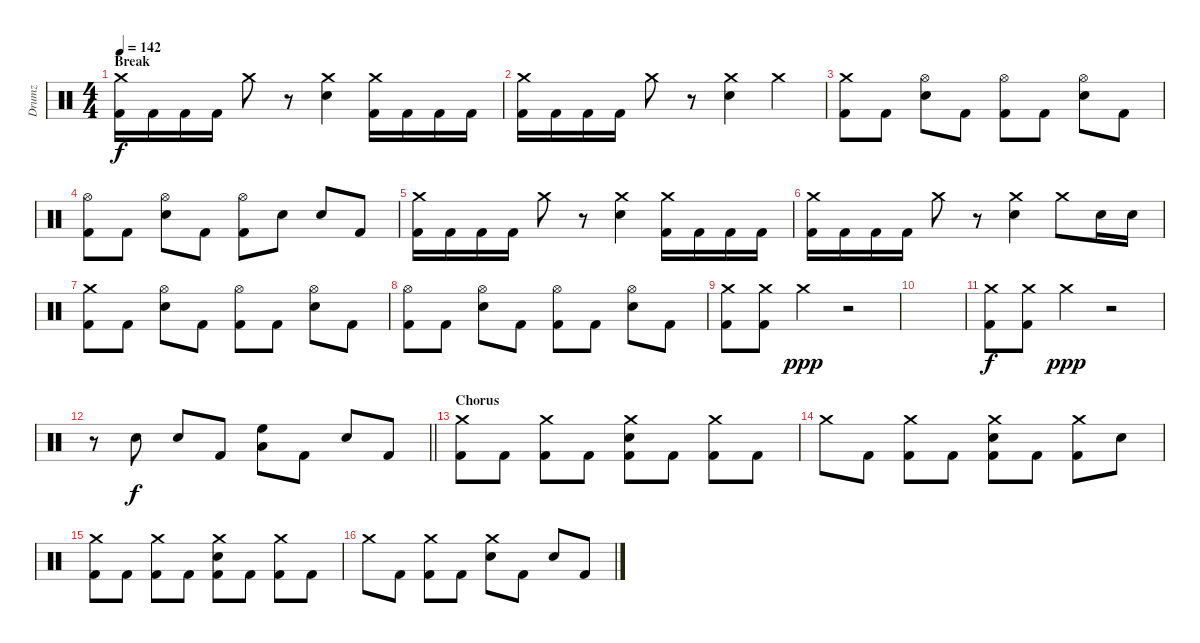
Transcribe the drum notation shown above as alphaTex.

\track ("Drumz" "Drumz") {instrument percussion}
\staff {score}
\articulation defaults
\ts (4 4)
\section ("" "Break")
\tempo 142
\clef neutral
\ks c
("Crash medium (hit)" "Kick (hit) 2").16{dy f} "Kick (hit) 2".16 "Kick (hit) 2".16 "Kick (hit) 2".16 "Crash medium (hit)".8 r.8 ("Crash medium (hit)" "Electric Snare (hit)").4 ("Crash medium (hit)" "Kick (hit) 2").16 "Kick (hit) 2".16 "Kick (hit) 2".16 "Kick (hit) 2".16 |
("Crash medium (hit)" "Kick (hit) 2").16 "Kick (hit) 2".16 "Kick (hit) 2".16 "Kick (hit) 2".16 "Crash medium (hit)".8 r.8 ("Crash medium (hit)" "Electric Snare (hit)").4 "Crash medium (hit)".4 |
("Crash medium (hit)" "Kick (hit) 2").8 "Kick (hit) 2".8 ("Hi-Hat (open)" "Electric Snare (hit)").8 "Kick (hit) 2".8 ("Hi-Hat (open)" "Kick (hit) 2").8 "Kick (hit) 2".8 ("Hi-Hat (open)" "Electric Snare (hit)").8 "Kick (hit) 2".8 |
("Hi-Hat (open)" "Kick (hit) 2").8 "Kick (hit) 2".8 ("Hi-Hat (open)" "Electric Snare (hit)").8 "Kick (hit) 2".8 ("Hi-Hat (open)" "Kick (hit) 2").8 "Electric Snare (hit)".8 "Electric Snare (hit)".8 "Kick (hit) 2".8 |
("Crash medium (hit)" "Kick (hit) 2").16 "Kick (hit) 2".16 "Kick (hit) 2".16 "Kick (hit) 2".16 "Crash medium (hit)".8 r.8 ("Crash medium (hit)" "Electric Snare (hit)").4 ("Crash medium (hit)" "Kick (hit) 2").16 "Kick (hit) 2".16 "Kick (hit) 2".16 "Kick (hit) 2".16 |
("Crash medium (hit)" "Kick (hit) 2").16 "Kick (hit) 2".16 "Kick (hit) 2".16 "Kick (hit) 2".16 "Crash medium (hit)".8 r.8 ("Crash medium (hit)" "Electric Snare (hit)").4 "Crash medium (hit)".8 "Electric Snare (hit)".16 "Electric Snare (hit)".16 |
("Crash medium (hit)" "Kick (hit) 2").8 "Kick (hit) 2".8 ("Hi-Hat (open)" "Electric Snare (hit)").8 "Kick (hit) 2".8 ("Hi-Hat (open)" "Kick (hit) 2").8 "Kick (hit) 2".8 ("Hi-Hat (open)" "Electric Snare (hit)").8 "Kick (hit) 2".8 |
("Hi-Hat (open)" "Kick (hit) 2").8 "Kick (hit) 2".8 ("Hi-Hat (open)" "Electric Snare (hit)").8 "Kick (hit) 2".8 ("Hi-Hat (open)" "Kick (hit) 2").8 "Kick (hit) 2".8 ("Hi-Hat (open)" "Electric Snare (hit)").8 "Kick (hit) 2".8 |
("Crash medium (hit)" "Kick (hit) 2").8 ("Crash medium (hit)" "Kick (hit) 2").8 "Crash medium (hit)".4{dy ppp} r.2 |
|
("Crash medium (hit)" "Kick (hit) 2").8{dy f} ("Crash medium (hit)" "Kick (hit) 2").8 "Crash medium (hit)".4{dy ppp} r.2 |
\barLineRight lightlight
r.8 "Electric Snare (hit)".8{dy f} "Electric Snare (hit)".8 "Kick (hit) 2".8 ("Low Floor Tom (hit)" "High Floor Tom (hit)").8 "Kick (hit) 2".8 "Electric Snare (hit)".8 "Kick (hit) 2".8 |
\section ("" "Chorus")
("Crash medium (hit)" "Kick (hit) 2").8 "Kick (hit) 2".8 ("Crash medium (hit)" "Kick (hit) 2").8 "Kick (hit) 2".8 ("Crash medium (hit)" "Electric Snare (hit)" "Kick (hit) 2").8 "Kick (hit) 2".8 ("Crash medium (hit)" "Kick (hit) 2").8 "Kick (hit) 2".8 |
"Crash medium (hit)".8 "Kick (hit) 2".8 ("Crash medium (hit)" "Kick (hit) 2").8 "Kick (hit) 2".8 ("Crash medium (hit)" "Electric Snare (hit)" "Kick (hit) 2").8 "Kick (hit) 2".8 ("Crash medium (hit)" "Kick (hit) 2").8 "Electric Snare (hit)".8 |
("Crash medium (hit)" "Kick (hit) 2").8 "Kick (hit) 2".8 ("Crash medium (hit)" "Kick (hit) 2").8 "Kick (hit) 2".8 ("Crash medium (hit)" "Electric Snare (hit)" "Kick (hit) 2").8 "Kick (hit) 2".8 ("Crash medium (hit)" "Kick (hit) 2").8 "Kick (hit) 2".8 |
"Crash medium (hit)".8 "Kick (hit) 2".8 ("Crash medium (hit)" "Kick (hit) 2").8 "Kick (hit) 2".8 ("Crash medium (hit)" "Electric Snare (hit)").8 "Kick (hit) 2".8 "Electric Snare (hit)".8 "Kick (hit) 2".8
